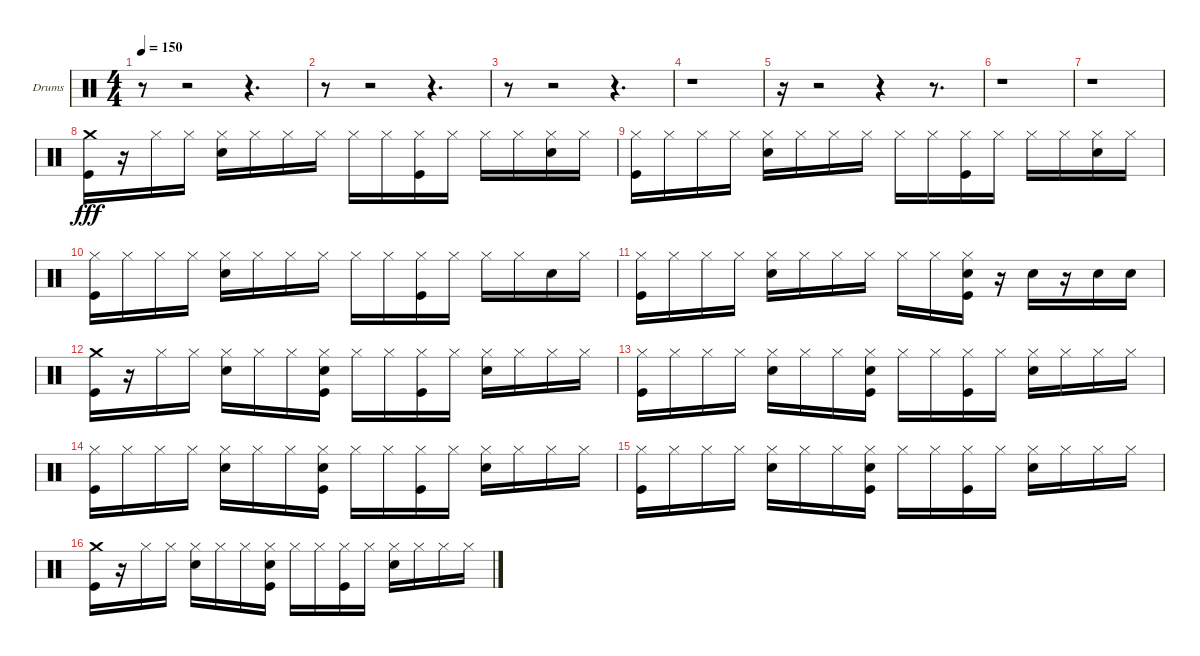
\defaultSystemsLayout 4
\bracketExtendMode groupsimilarinstruments
\firstSystemTrackNameOrientation horizontal
\otherSystemsTrackNameOrientation horizontal
\track ("Matt Helders" "Drums") {instrument percussion}
\staff {score}
\articulation defaults
\ts (4 4)
\tempo 150
\clef neutral
\ks c
r.8{dy fff} r.2 r.4{d} |
r.8 r.2 r.4{d} |
r.8 r.2 r.4{d} |
r.1 |
r.16 r.2 r.4 r.8{d} |
r.1 |
r.1 |
("Crash medium (hit)" "Kick (hit)").16 r.16 "Hi-Hat (closed)".16 "Hi-Hat (closed)".16 ("Hi-Hat (closed)" "Snare (hit) 2").16 "Hi-Hat (closed)".16 "Hi-Hat (closed)".16 "Hi-Hat (closed)".16 "Hi-Hat (closed)".16 "Hi-Hat (closed)".16 ("Hi-Hat (closed)" "Kick (hit)").16 "Hi-Hat (closed)".16 "Hi-Hat (closed)".16 "Hi-Hat (closed)".16 ("Hi-Hat (closed)" "Snare (hit) 2").16 "Hi-Hat (closed)".16 |
("Hi-Hat (closed)" "Kick (hit)").16 "Hi-Hat (closed)".16 "Hi-Hat (closed)".16 "Hi-Hat (closed)".16 ("Hi-Hat (closed)" "Snare (hit) 2").16 "Hi-Hat (closed)".16 "Hi-Hat (closed)".16 "Hi-Hat (closed)".16 "Hi-Hat (closed)".16 "Hi-Hat (closed)".16 ("Hi-Hat (closed)" "Kick (hit)").16 "Hi-Hat (closed)".16 "Hi-Hat (closed)".16 "Hi-Hat (closed)".16 ("Hi-Hat (closed)" "Snare (hit) 2").16 "Hi-Hat (closed)".16 |
("Hi-Hat (closed)" "Kick (hit)").16 "Hi-Hat (closed)".16 "Hi-Hat (closed)".16 "Hi-Hat (closed)".16 ("Hi-Hat (closed)" "Snare (hit) 2").16 "Hi-Hat (closed)".16 "Hi-Hat (closed)".16 "Hi-Hat (closed)".16 "Hi-Hat (closed)".16 "Hi-Hat (closed)".16 ("Hi-Hat (closed)" "Kick (hit)").16 "Hi-Hat (closed)".16 "Hi-Hat (closed)".16 "Hi-Hat (closed)".16 "Snare (hit) 2".16 "Hi-Hat (closed)".16 |
("Hi-Hat (closed)" "Kick (hit)").16 "Hi-Hat (closed)".16 "Hi-Hat (closed)".16 "Hi-Hat (closed)".16 ("Hi-Hat (closed)" "Snare (hit) 2").16 "Hi-Hat (closed)".16 "Hi-Hat (closed)".16 "Hi-Hat (closed)".16 "Hi-Hat (closed)".16 "Hi-Hat (closed)".16 ("Hi-Hat (closed)" "Snare (hit) 2" "Kick (hit)").16 r.16 "Snare (hit) 2".16 r.16 "Snare (hit) 2".16 "Snare (hit) 2".16 |
("Crash medium (hit)" "Kick (hit)").16 r.16 "Hi-Hat (closed)".16 "Hi-Hat (closed)".16 ("Hi-Hat (closed)" "Snare (hit) 2").16 "Hi-Hat (closed)".16 "Hi-Hat (closed)".16 ("Hi-Hat (closed)" "Snare (hit) 2" "Kick (hit)").16 "Hi-Hat (closed)".16 "Hi-Hat (closed)".16 ("Hi-Hat (closed)" "Kick (hit)").16 "Hi-Hat (closed)".16 ("Hi-Hat (closed)" "Snare (hit) 2").16 "Hi-Hat (closed)".16 "Hi-Hat (closed)".16 "Hi-Hat (closed)".16 |
("Hi-Hat (closed)" "Kick (hit)").16 "Hi-Hat (closed)".16 "Hi-Hat (closed)".16 "Hi-Hat (closed)".16 ("Hi-Hat (closed)" "Snare (hit) 2").16 "Hi-Hat (closed)".16 "Hi-Hat (closed)".16 ("Hi-Hat (closed)" "Snare (hit) 2" "Kick (hit)").16 "Hi-Hat (closed)".16 "Hi-Hat (closed)".16 ("Hi-Hat (closed)" "Kick (hit)").16 "Hi-Hat (closed)".16 ("Hi-Hat (closed)" "Snare (hit) 2").16 "Hi-Hat (closed)".16 "Hi-Hat (closed)".16 "Hi-Hat (closed)".16 |
("Hi-Hat (closed)" "Kick (hit)").16 "Hi-Hat (closed)".16 "Hi-Hat (closed)".16 "Hi-Hat (closed)".16 ("Hi-Hat (closed)" "Snare (hit) 2").16 "Hi-Hat (closed)".16 "Hi-Hat (closed)".16 ("Hi-Hat (closed)" "Snare (hit) 2" "Kick (hit)").16 "Hi-Hat (closed)".16 "Hi-Hat (closed)".16 ("Hi-Hat (closed)" "Kick (hit)").16 "Hi-Hat (closed)".16 ("Hi-Hat (closed)" "Snare (hit) 2").16 "Hi-Hat (closed)".16 "Hi-Hat (closed)".16 "Hi-Hat (closed)".16 |
("Hi-Hat (closed)" "Kick (hit)").16 "Hi-Hat (closed)".16 "Hi-Hat (closed)".16 "Hi-Hat (closed)".16 ("Hi-Hat (closed)" "Snare (hit) 2").16 "Hi-Hat (closed)".16 "Hi-Hat (closed)".16 ("Hi-Hat (closed)" "Snare (hit) 2" "Kick (hit)").16 "Hi-Hat (closed)".16 "Hi-Hat (closed)".16 ("Hi-Hat (closed)" "Kick (hit)").16 "Hi-Hat (closed)".16 ("Hi-Hat (closed)" "Snare (hit) 2").16 "Hi-Hat (closed)".16 "Hi-Hat (closed)".16 "Hi-Hat (closed)".16 |
("Crash medium (hit)" "Kick (hit)").16 r.16 "Hi-Hat (closed)".16 "Hi-Hat (closed)".16 ("Hi-Hat (closed)" "Snare (hit) 2").16 "Hi-Hat (closed)".16 "Hi-Hat (closed)".16 ("Hi-Hat (closed)" "Snare (hit) 2" "Kick (hit)").16 "Hi-Hat (closed)".16 "Hi-Hat (closed)".16 ("Hi-Hat (closed)" "Kick (hit)").16 "Hi-Hat (closed)".16 ("Hi-Hat (closed)" "Snare (hit) 2").16 "Hi-Hat (closed)".16 "Hi-Hat (closed)".16 "Hi-Hat (closed)".16
